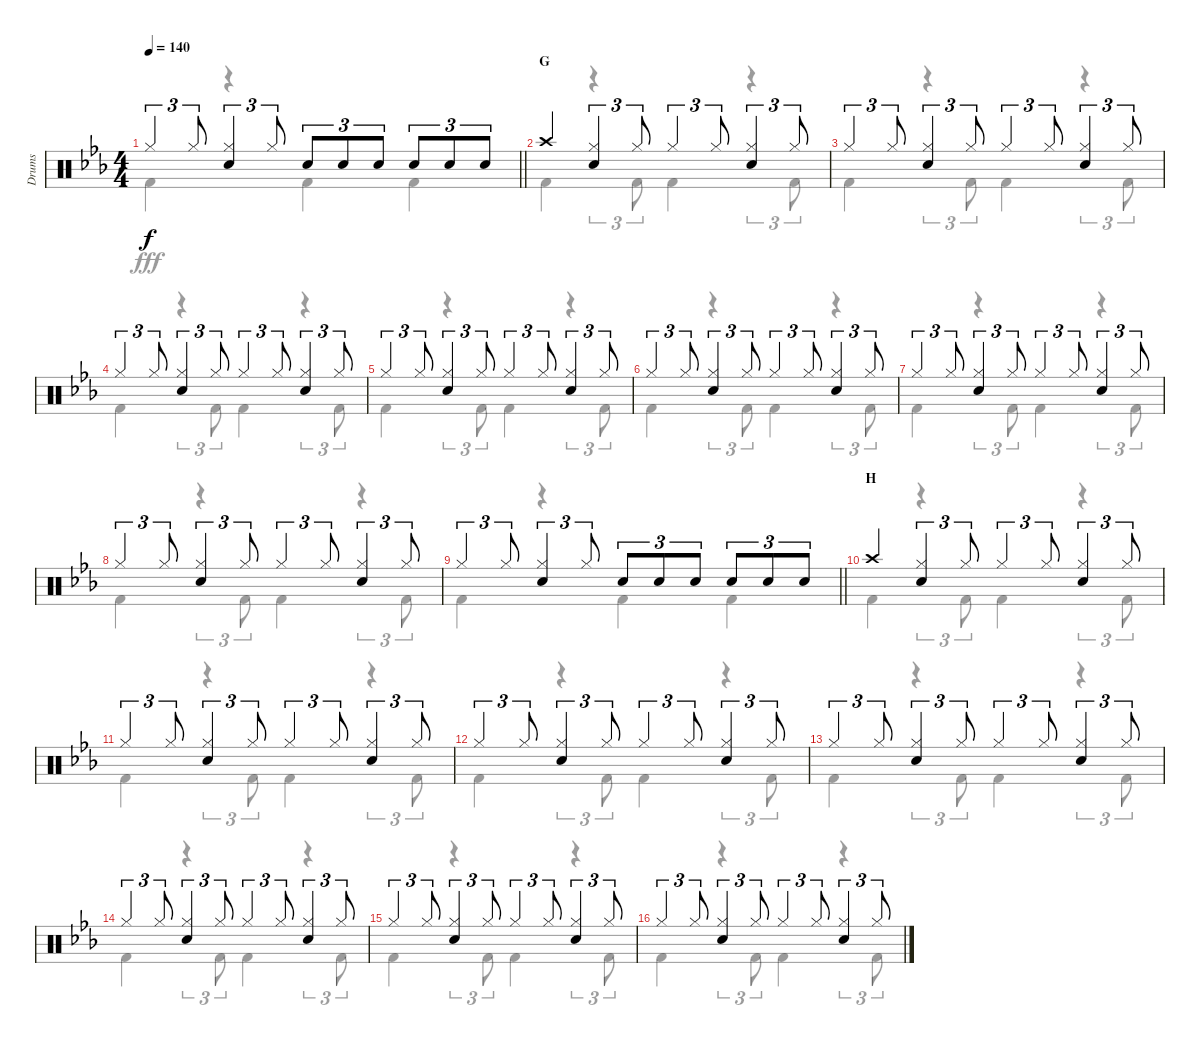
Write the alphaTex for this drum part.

\track ("Drums" "Drums") {instrument percussion}
\staff {score}
\articulation defaults
\voice
\ts (4 4)
\tempo 140
\clef neutral
\barLineRight lightlight
\ks eb "Hi-Hat (closed)".4{tu (3 2) dy f} "Hi-Hat (closed)".8{tu (3 2)}
("Hi-Hat (closed)" "Snare (hit) 2").4{tu (3 2)} "Hi-Hat (closed)".8{tu (3 2)} "Snare (hit) 2".8{tu (3 2)} "Snare (hit) 2".8{tu (3 2)} "Snare (hit) 2".8{tu (3 2)} "Snare (hit) 2".8{tu (3 2)} "Snare (hit) 2".8{tu (3 2)} "Snare (hit) 2".8{tu (3 2)} |
\section ("" "G")
"Crash high (hit)".4 ("Hi-Hat (closed)" "Snare (hit) 2").4{tu (3 2)} "Hi-Hat (closed)".8{tu (3 2)} "Hi-Hat (closed)".4{tu (3 2)} "Hi-Hat (closed)".8{tu (3 2)} ("Hi-Hat (closed)" "Snare (hit) 2").4{tu (3 2)} "Hi-Hat (closed)".8{tu (3 2)} |
"Hi-Hat (closed)".4{tu (3 2)} "Hi-Hat (closed)".8{tu (3 2)} ("Hi-Hat (closed)" "Snare (hit) 2").4{tu (3 2)} "Hi-Hat (closed)".8{tu (3 2)} "Hi-Hat (closed)".4{tu (3 2)} "Hi-Hat (closed)".8{tu (3 2)} ("Hi-Hat (closed)" "Snare (hit) 2").4{tu (3 2)} "Hi-Hat (closed)".8{tu (3 2)} |
"Hi-Hat (closed)".4{tu (3 2)} "Hi-Hat (closed)".8{tu (3 2)} ("Hi-Hat (closed)" "Snare (hit) 2").4{tu (3 2)} "Hi-Hat (closed)".8{tu (3 2)} "Hi-Hat (closed)".4{tu (3 2)} "Hi-Hat (closed)".8{tu (3 2)} ("Hi-Hat (closed)" "Snare (hit) 2").4{tu (3 2)} "Hi-Hat (closed)".8{tu (3 2)} |
"Hi-Hat (closed)".4{tu (3 2)} "Hi-Hat (closed)".8{tu (3 2)} ("Hi-Hat (closed)" "Snare (hit) 2").4{tu (3 2)} "Hi-Hat (closed)".8{tu (3 2)} "Hi-Hat (closed)".4{tu (3 2)} "Hi-Hat (closed)".8{tu (3 2)} ("Hi-Hat (closed)" "Snare (hit) 2").4{tu (3 2)} "Hi-Hat (closed)".8{tu (3 2)} |
"Hi-Hat (closed)".4{tu (3 2)} "Hi-Hat (closed)".8{tu (3 2)} ("Hi-Hat (closed)" "Snare (hit) 2").4{tu (3 2)} "Hi-Hat (closed)".8{tu (3 2)} "Hi-Hat (closed)".4{tu (3 2)} "Hi-Hat (closed)".8{tu (3 2)} ("Hi-Hat (closed)" "Snare (hit) 2").4{tu (3 2)} "Hi-Hat (closed)".8{tu (3 2)} |
"Hi-Hat (closed)".4{tu (3 2)} "Hi-Hat (closed)".8{tu (3 2)} ("Hi-Hat (closed)" "Snare (hit) 2").4{tu (3 2)} "Hi-Hat (closed)".8{tu (3 2)} "Hi-Hat (closed)".4{tu (3 2)} "Hi-Hat (closed)".8{tu (3 2)} ("Hi-Hat (closed)" "Snare (hit) 2").4{tu (3 2)} "Hi-Hat (closed)".8{tu (3 2)} |
"Hi-Hat (closed)".4{tu (3 2)} "Hi-Hat (closed)".8{tu (3 2)} ("Hi-Hat (closed)" "Snare (hit) 2").4{tu (3 2)} "Hi-Hat (closed)".8{tu (3 2)} "Hi-Hat (closed)".4{tu (3 2)} "Hi-Hat (closed)".8{tu (3 2)} ("Hi-Hat (closed)" "Snare (hit) 2").4{tu (3 2)} "Hi-Hat (closed)".8{tu (3 2)} |
\barLineRight lightlight "Hi-Hat (closed)".4{tu (3 2)} "Hi-Hat (closed)".8{tu (3 2)}
("Hi-Hat (closed)" "Snare (hit) 2").4{tu (3 2)} "Hi-Hat (closed)".8{tu (3 2)} "Snare (hit) 2".8{tu (3 2)} "Snare (hit) 2".8{tu (3 2)} "Snare (hit) 2".8{tu (3 2)} "Snare (hit) 2".8{tu (3 2)} "Snare (hit) 2".8{tu (3 2)} "Snare (hit) 2".8{tu (3 2)} |
\section ("" "H")
"Crash high (hit)".4 ("Hi-Hat (closed)" "Snare (hit) 2").4{tu (3 2)} "Hi-Hat (closed)".8{tu (3 2)} "Hi-Hat (closed)".4{tu (3 2)} "Hi-Hat (closed)".8{tu (3 2)} ("Hi-Hat (closed)" "Snare (hit) 2").4{tu (3 2)} "Hi-Hat (closed)".8{tu (3 2)} |
"Hi-Hat (closed)".4{tu (3 2)} "Hi-Hat (closed)".8{tu (3 2)} ("Hi-Hat (closed)" "Snare (hit) 2").4{tu (3 2)} "Hi-Hat (closed)".8{tu (3 2)} "Hi-Hat (closed)".4{tu (3 2)} "Hi-Hat (closed)".8{tu (3 2)} ("Hi-Hat (closed)" "Snare (hit) 2").4{tu (3 2)} "Hi-Hat (closed)".8{tu (3 2)} |
"Hi-Hat (closed)".4{tu (3 2)} "Hi-Hat (closed)".8{tu (3 2)} ("Hi-Hat (closed)" "Snare (hit) 2").4{tu (3 2)} "Hi-Hat (closed)".8{tu (3 2)} "Hi-Hat (closed)".4{tu (3 2)} "Hi-Hat (closed)".8{tu (3 2)} ("Hi-Hat (closed)" "Snare (hit) 2").4{tu (3 2)} "Hi-Hat (closed)".8{tu (3 2)} |
"Hi-Hat (closed)".4{tu (3 2)} "Hi-Hat (closed)".8{tu (3 2)} ("Hi-Hat (closed)" "Snare (hit) 2").4{tu (3 2)} "Hi-Hat (closed)".8{tu (3 2)} "Hi-Hat (closed)".4{tu (3 2)} "Hi-Hat (closed)".8{tu (3 2)} ("Hi-Hat (closed)" "Snare (hit) 2").4{tu (3 2)} "Hi-Hat (closed)".8{tu (3 2)} |
"Hi-Hat (closed)".4{tu (3 2)} "Hi-Hat (closed)".8{tu (3 2)} ("Hi-Hat (closed)" "Snare (hit) 2").4{tu (3 2)} "Hi-Hat (closed)".8{tu (3 2)} "Hi-Hat (closed)".4{tu (3 2)} "Hi-Hat (closed)".8{tu (3 2)} ("Hi-Hat (closed)" "Snare (hit) 2").4{tu (3 2)} "Hi-Hat (closed)".8{tu (3 2)} |
"Hi-Hat (closed)".4{tu (3 2)} "Hi-Hat (closed)".8{tu (3 2)} ("Hi-Hat (closed)" "Snare (hit) 2").4{tu (3 2)} "Hi-Hat (closed)".8{tu (3 2)} "Hi-Hat (closed)".4{tu (3 2)} "Hi-Hat (closed)".8{tu (3 2)} ("Hi-Hat (closed)" "Snare (hit) 2").4{tu (3 2)} "Hi-Hat (closed)".8{tu (3 2)} |
"Hi-Hat (closed)".4{tu (3 2)} "Hi-Hat (closed)".8{tu (3 2)} ("Hi-Hat (closed)" "Snare (hit) 2").4{tu (3 2)} "Hi-Hat (closed)".8{tu (3 2)} "Hi-Hat (closed)".4{tu (3 2)} "Hi-Hat (closed)".8{tu (3 2)} ("Hi-Hat (closed)" "Snare (hit) 2").4{tu (3 2)} "Hi-Hat (closed)".8{tu (3 2)}
\voice
\clef neutral
\ottava regular
\simile none
\barLineRight lightlight
\ks eb "Kick (hit) 2".4{dy fff}
r.4 "Kick (hit) 2".4 "Kick (hit) 2".4 |
"Kick (hit) 2".4 r.4{tu (3 2)} "Kick (hit) 2".8{tu (3 2)} "Kick (hit) 2".4 r.4{tu (3 2)} "Kick (hit) 2".8{tu (3 2)} |
"Kick (hit) 2".4 r.4{tu (3 2)} "Kick (hit) 2".8{tu (3 2)} "Kick (hit) 2".4 r.4{tu (3 2)} "Kick (hit) 2".8{tu (3 2)} |
"Kick (hit) 2".4 r.4{tu (3 2)} "Kick (hit) 2".8{tu (3 2)} "Kick (hit) 2".4 r.4{tu (3 2)} "Kick (hit) 2".8{tu (3 2)} |
"Kick (hit) 2".4 r.4{tu (3 2)} "Kick (hit) 2".8{tu (3 2)} "Kick (hit) 2".4 r.4{tu (3 2)} "Kick (hit) 2".8{tu (3 2)} |
"Kick (hit) 2".4 r.4{tu (3 2)} "Kick (hit) 2".8{tu (3 2)} "Kick (hit) 2".4 r.4{tu (3 2)} "Kick (hit) 2".8{tu (3 2)} |
"Kick (hit) 2".4 r.4{tu (3 2)} "Kick (hit) 2".8{tu (3 2)} "Kick (hit) 2".4 r.4{tu (3 2)} "Kick (hit) 2".8{tu (3 2)} |
"Kick (hit) 2".4 r.4{tu (3 2)} "Kick (hit) 2".8{tu (3 2)} "Kick (hit) 2".4 r.4{tu (3 2)} "Kick (hit) 2".8{tu (3 2)} |
\barLineRight lightlight "Kick (hit) 2".4
r.4 "Kick (hit) 2".4 "Kick (hit) 2".4 |
"Kick (hit) 2".4 r.4{tu (3 2)} "Kick (hit) 2".8{tu (3 2)} "Kick (hit) 2".4 r.4{tu (3 2)} "Kick (hit) 2".8{tu (3 2)} |
"Kick (hit) 2".4 r.4{tu (3 2)} "Kick (hit) 2".8{tu (3 2)} "Kick (hit) 2".4 r.4{tu (3 2)} "Kick (hit) 2".8{tu (3 2)} |
"Kick (hit) 2".4 r.4{tu (3 2)} "Kick (hit) 2".8{tu (3 2)} "Kick (hit) 2".4 r.4{tu (3 2)} "Kick (hit) 2".8{tu (3 2)} |
"Kick (hit) 2".4 r.4{tu (3 2)} "Kick (hit) 2".8{tu (3 2)} "Kick (hit) 2".4 r.4{tu (3 2)} "Kick (hit) 2".8{tu (3 2)} |
"Kick (hit) 2".4 r.4{tu (3 2)} "Kick (hit) 2".8{tu (3 2)} "Kick (hit) 2".4 r.4{tu (3 2)} "Kick (hit) 2".8{tu (3 2)} |
"Kick (hit) 2".4 r.4{tu (3 2)} "Kick (hit) 2".8{tu (3 2)} "Kick (hit) 2".4 r.4{tu (3 2)} "Kick (hit) 2".8{tu (3 2)} |
"Kick (hit) 2".4 r.4{tu (3 2)} "Kick (hit) 2".8{tu (3 2)} "Kick (hit) 2".4 r.4{tu (3 2)} "Kick (hit) 2".8{tu (3 2)}
